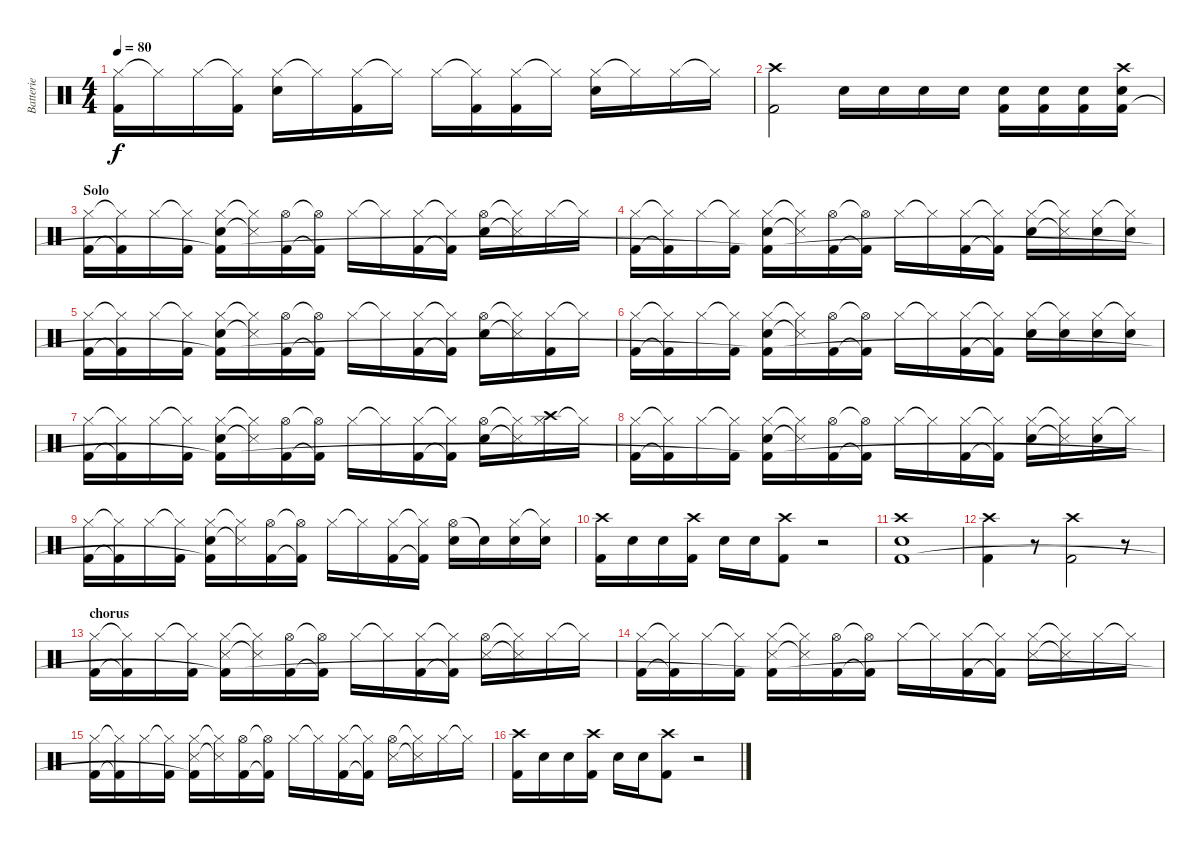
\track ("Batterie" "Batterie") {instrument percussion}
\staff {score}
\articulation defaults
\ts (4 4)
\tempo 80
\clef neutral
\ks c
("Hi-Hat (closed)" "Kick (hit) 2").16{dy f} "Hi-Hat (closed)"{t}.16 "Hi-Hat (closed)".16 ("Hi-Hat (closed)"{t} "Kick (hit) 2").16 ("Hi-Hat (closed)" "Snare (hit) 2").16 "Hi-Hat (closed)"{t}.16 ("Hi-Hat (closed)" "Kick (hit) 2").16 "Hi-Hat (closed)"{t}.16 "Hi-Hat (closed)".16 ("Hi-Hat (closed)"{t} "Kick (hit) 2").16 ("Hi-Hat (closed)" "Kick (hit) 2").16 "Hi-Hat (closed)"{t}.16 ("Hi-Hat (closed)" "Snare (hit) 2").16 "Hi-Hat (closed)"{t}.16 "Hi-Hat (closed)".16 "Hi-Hat (closed)"{t}.16 |
("Crash high (hit)" "Kick (hit) 2").2 "Snare (hit) 2".16 "Snare (hit) 2".16 "Snare (hit) 2".16 "Snare (hit) 2".16 ("Snare (hit) 2" "Kick (hit) 2").16 ("Snare (hit) 2" "Kick (hit) 2").16 ("Snare (hit) 2" "Kick (hit) 2").16 ("Crash high (hit)" "Snare (hit) 2" "Kick (hit) 2").16 |
\section ("" "Solo")
("Hi-Hat (closed)" "Kick (hit) 2").16 ("Hi-Hat (closed)"{t} "Kick (hit) 2"{t}).16 "Hi-Hat (closed)".16 ("Hi-Hat (closed)"{t} "Kick (hit) 2").16 ("Hi-Hat (closed)" "Snare (hit) 2" "Kick (hit) 2"{t}).16 ("Hi-Hat (closed)"{t} "Snare (side stick) 3"{t}).16 ("Hi-Hat (open)" "Kick (hit) 2").16 ("Hi-Hat (open)"{t} "Kick (hit) 2"{t}).16 "Hi-Hat (closed)".16 "Hi-Hat (closed)"{t}.16 ("Hi-Hat (closed)" "Kick (hit) 2").16 ("Hi-Hat (closed)"{t} "Kick (hit) 2"{t}).16 ("Hi-Hat (open)" "Snare (hit) 2").16 ("Hi-Hat (closed)"{t} "Snare (side stick) 3"{t}).16 "Hi-Hat (closed)".16 "Hi-Hat (closed)"{t}.16 |
("Hi-Hat (closed)" "Kick (hit) 2").16 ("Hi-Hat (closed)"{t} "Kick (hit) 2"{t}).16 "Hi-Hat (closed)".16 ("Hi-Hat (closed)"{t} "Kick (hit) 2").16 ("Hi-Hat (closed)" "Snare (hit) 2" "Kick (hit) 2"{t}).16 ("Hi-Hat (closed)"{t} "Snare (side stick) 3"{t}).16 ("Hi-Hat (open)" "Kick (hit) 2").16 ("Hi-Hat (open)"{t} "Kick (hit) 2"{t}).16 "Hi-Hat (closed)".16 "Hi-Hat (closed)"{t}.16 ("Hi-Hat (closed)" "Kick (hit) 2").16 ("Hi-Hat (closed)"{t} "Kick (hit) 2"{t}).16 ("Hi-Hat (closed)" "Snare (hit) 2").16 ("Hi-Hat (closed)"{t} "Snare (side stick) 3"{t}).16 ("Hi-Hat (closed)" "Snare (hit) 2").16 ("Hi-Hat (closed)"{t} "Snare (hit) 2").16 |
("Hi-Hat (closed)" "Kick (hit) 2").16 ("Hi-Hat (closed)"{t} "Kick (hit) 2"{t}).16 "Hi-Hat (closed)".16 ("Hi-Hat (closed)"{t} "Kick (hit) 2").16 ("Hi-Hat (closed)" "Snare (hit) 2" "Kick (hit) 2"{t}).16 ("Hi-Hat (closed)"{t} "Snare (side stick) 3"{t}).16 ("Hi-Hat (open)" "Kick (hit) 2").16 ("Hi-Hat (open)"{t} "Kick (hit) 2"{t}).16 "Hi-Hat (closed)".16 "Hi-Hat (closed)"{t}.16 ("Hi-Hat (closed)" "Kick (hit) 2").16 ("Hi-Hat (closed)"{t} "Kick (hit) 2"{t}).16 ("Hi-Hat (open)" "Snare (hit) 2").16 ("Hi-Hat (closed)"{t} "Snare (side stick) 3"{t}).16 ("Hi-Hat (closed)" "Kick (hit) 2").16 "Hi-Hat (closed)"{t}.16 |
("Hi-Hat (closed)" "Kick (hit) 2").16 ("Hi-Hat (closed)"{t} "Kick (hit) 2"{t}).16 "Hi-Hat (closed)".16 ("Hi-Hat (closed)"{t} "Kick (hit) 2").16 ("Hi-Hat (closed)" "Snare (hit) 2" "Kick (hit) 2"{t}).16 ("Hi-Hat (closed)"{t} "Snare (side stick) 3"{t}).16 ("Hi-Hat (open)" "Kick (hit) 2").16 ("Hi-Hat (open)"{t} "Kick (hit) 2"{t}).16 "Hi-Hat (closed)".16 "Hi-Hat (closed)"{t}.16 ("Hi-Hat (closed)" "Kick (hit) 2").16 ("Hi-Hat (closed)"{t} "Kick (hit) 2"{t}).16 ("Hi-Hat (closed)" "Snare (hit) 2").16 ("Hi-Hat (closed)"{t} "Snare (hit) 2").16 ("Hi-Hat (closed)" "Snare (hit) 2").16 ("Hi-Hat (closed)"{t} "Snare (hit) 2").16 |
("Hi-Hat (closed)" "Kick (hit) 2").16 ("Hi-Hat (closed)"{t} "Kick (hit) 2"{t}).16 "Hi-Hat (closed)".16 ("Hi-Hat (closed)"{t} "Kick (hit) 2").16 ("Hi-Hat (closed)" "Snare (hit) 2" "Kick (hit) 2"{t}).16 ("Hi-Hat (closed)"{t} "Snare (side stick) 3"{t}).16 ("Hi-Hat (open)" "Kick (hit) 2").16 ("Hi-Hat (open)"{t} "Kick (hit) 2"{t}).16 "Hi-Hat (closed)".16 "Hi-Hat (closed)"{t}.16 ("Hi-Hat (closed)" "Kick (hit) 2").16 ("Hi-Hat (closed)"{t} "Kick (hit) 2"{t}).16 ("Hi-Hat (open)" "Snare (hit) 2").16 ("Hi-Hat (closed)"{t} "Snare (side stick) 3"{t}).16 ("Hi-Hat (closed)" "Crash high (hit)").16 "Hi-Hat (closed)"{t}.16 |
("Hi-Hat (closed)" "Kick (hit) 2").16 ("Hi-Hat (closed)"{t} "Kick (hit) 2"{t}).16 "Hi-Hat (closed)".16 ("Hi-Hat (closed)"{t} "Kick (hit) 2").16 ("Hi-Hat (closed)" "Snare (hit) 2" "Kick (hit) 2"{t}).16 ("Hi-Hat (closed)"{t} "Snare (side stick) 3"{t}).16 ("Hi-Hat (open)" "Kick (hit) 2").16 ("Hi-Hat (open)"{t} "Kick (hit) 2"{t}).16 "Hi-Hat (closed)".16 "Hi-Hat (closed)"{t}.16 ("Hi-Hat (closed)" "Kick (hit) 2").16 ("Hi-Hat (closed)"{t} "Kick (hit) 2"{t}).16 ("Hi-Hat (closed)" "Snare (hit) 2").16 ("Hi-Hat (closed)"{t} "Snare (side stick) 3"{t}).16 ("Hi-Hat (closed)" "Snare (hit) 2").16 "Hi-Hat (closed)"{t}.16 |
("Hi-Hat (closed)" "Kick (hit) 2").16 ("Hi-Hat (closed)"{t} "Kick (hit) 2"{t}).16 "Hi-Hat (closed)".16 ("Hi-Hat (closed)"{t} "Kick (hit) 2").16 ("Hi-Hat (closed)" "Snare (hit) 2" "Kick (hit) 2"{t}).16 ("Hi-Hat (closed)"{t} "Snare (side stick) 3"{t}).16 ("Hi-Hat (open)" "Kick (hit) 2").16 ("Hi-Hat (open)"{t} "Kick (hit) 2"{t}).16 "Hi-Hat (closed)".16 "Hi-Hat (closed)"{t}.16 ("Hi-Hat (closed)" "Kick (hit) 2").16 ("Hi-Hat (closed)"{t} "Kick (hit) 2"{t}).16 ("Hi-Hat (open)" "Snare (hit) 2").16 "Snare (hit) 2"{t}.16 ("Hi-Hat (closed)" "Snare (hit) 2").16 ("Hi-Hat (closed)"{t} "Snare (hit) 2").16 |
("Crash high (hit)" "Kick (hit) 2").16 "Snare (hit) 2".16 "Snare (hit) 2".16 ("Crash high (hit)" "Kick (hit) 2").16 "Snare (hit) 2".16 "Snare (hit) 2".16 ("Crash high (hit)" "Kick (hit) 2").8 r.2 |
("Crash high (hit)" "Snare (hit) 2" "Kick (hit) 2").1 |
("Crash high (hit)" "Kick (hit) 2").4 r.8 ("Crash high (hit)" "Kick (hit) 2").2 r.8 |
\section ("" "chorus")
("Hi-Hat (closed)" "Kick (hit) 2").16 ("Hi-Hat (closed)"{t} "Kick (hit) 2"{t}).16 "Hi-Hat (closed)".16 ("Hi-Hat (closed)"{t} "Kick (hit) 2").16 ("Hi-Hat (closed)" "Snare (side stick) 3" "Kick (hit) 2"{t}).16 ("Hi-Hat (closed)"{t} "Snare (side stick) 3"{t}).16 ("Hi-Hat (open)" "Kick (hit) 2").16 ("Hi-Hat (open)"{t} "Kick (hit) 2"{t}).16 "Hi-Hat (closed)".16 "Hi-Hat (closed)"{t}.16 ("Hi-Hat (closed)" "Kick (hit) 2").16 ("Hi-Hat (closed)"{t} "Kick (hit) 2"{t}).16 ("Hi-Hat (open)" "Snare (side stick) 3").16 ("Hi-Hat (closed)"{t} "Snare (side stick) 3"{t}).16 "Hi-Hat (closed)".16 "Hi-Hat (closed)"{t}.16 |
("Hi-Hat (closed)" "Kick (hit) 2").16 ("Hi-Hat (closed)"{t} "Kick (hit) 2"{t}).16 "Hi-Hat (closed)".16 ("Hi-Hat (closed)"{t} "Kick (hit) 2").16 ("Hi-Hat (closed)" "Snare (side stick) 3" "Kick (hit) 2"{t}).16 ("Hi-Hat (closed)"{t} "Snare (side stick) 3"{t}).16 ("Hi-Hat (open)" "Kick (hit) 2").16 ("Hi-Hat (open)"{t} "Kick (hit) 2"{t}).16 "Hi-Hat (closed)".16 "Hi-Hat (closed)"{t}.16 ("Hi-Hat (closed)" "Kick (hit) 2").16 ("Hi-Hat (closed)"{t} "Kick (hit) 2"{t}).16 ("Hi-Hat (closed)" "Snare (side stick) 3").16 ("Hi-Hat (closed)"{t} "Snare (side stick) 3"{t}).16 "Hi-Hat (closed)".16 "Hi-Hat (closed)"{t}.16 |
("Hi-Hat (closed)" "Kick (hit) 2").16 ("Hi-Hat (closed)"{t} "Kick (hit) 2"{t}).16 "Hi-Hat (closed)".16 ("Hi-Hat (closed)"{t} "Kick (hit) 2").16 ("Hi-Hat (closed)" "Snare (side stick) 3" "Kick (hit) 2"{t}).16 ("Hi-Hat (closed)"{t} "Snare (side stick) 3"{t}).16 ("Hi-Hat (open)" "Kick (hit) 2").16 ("Hi-Hat (open)"{t} "Kick (hit) 2"{t}).16 "Hi-Hat (closed)".16 "Hi-Hat (closed)"{t}.16 ("Hi-Hat (closed)" "Kick (hit) 2").16 ("Hi-Hat (closed)"{t} "Kick (hit) 2"{t}).16 ("Hi-Hat (open)" "Snare (side stick) 3").16 ("Hi-Hat (closed)"{t} "Snare (side stick) 3"{t}).16 "Hi-Hat (closed)".16 "Hi-Hat (closed)"{t}.16 |
("Crash high (hit)" "Kick (hit) 2").16 "Snare (hit) 2".16 "Snare (hit) 2".16 ("Crash high (hit)" "Kick (hit) 2").16 "Snare (hit) 2".16 "Snare (hit) 2".16 ("Crash high (hit)" "Kick (hit) 2").8 r.2
